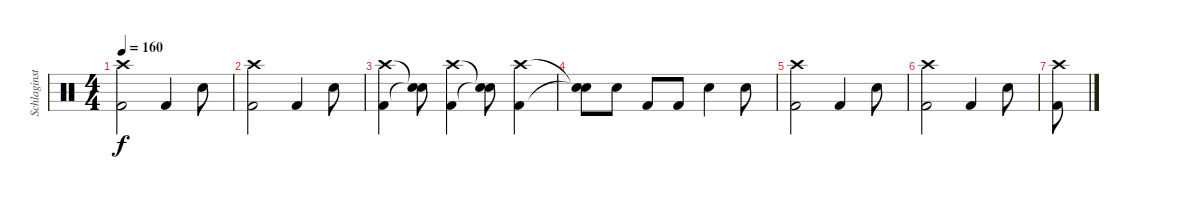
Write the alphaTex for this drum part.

\track ("Schlaginstrumente - Auswahl" "Schlaginst") {instrument percussion}
\staff {score}
\articulation defaults
\ts (4 4)
\tempo 160
\clef neutral
\ks c
("Crash high (hit)" "Kick (hit) 2").2{dy f} "Kick (hit) 2".4 "Electric Snare (hit)".8 |
("Crash high (hit)" "Kick (hit) 2").2 "Kick (hit) 2".4 "Electric Snare (hit)".8 |
("Crash high (hit)" "Kick (hit) 2").4 ("Snare (hit)"{t} "Snare (hit)"{t}).8 ("Crash high (hit)" "Kick (hit) 2").4 ("Snare (hit)"{t} "Snare (hit)"{t}).8 ("Crash high (hit)" "Kick (hit) 2").4 |
("Snare (hit)"{t} "Snare (hit)"{t}).8 "Electric Snare (hit)".8 "Kick (hit) 2".8 "Kick (hit) 2".8 "Electric Snare (hit)".4 "Electric Snare (hit)".8 |
("Crash high (hit)" "Kick (hit) 2").2 "Kick (hit) 2".4 "Electric Snare (hit)".8 |
("Crash high (hit)" "Kick (hit) 2").2 "Kick (hit) 2".4 "Electric Snare (hit)".8 |
("Crash high (hit)" "Kick (hit) 2").8
